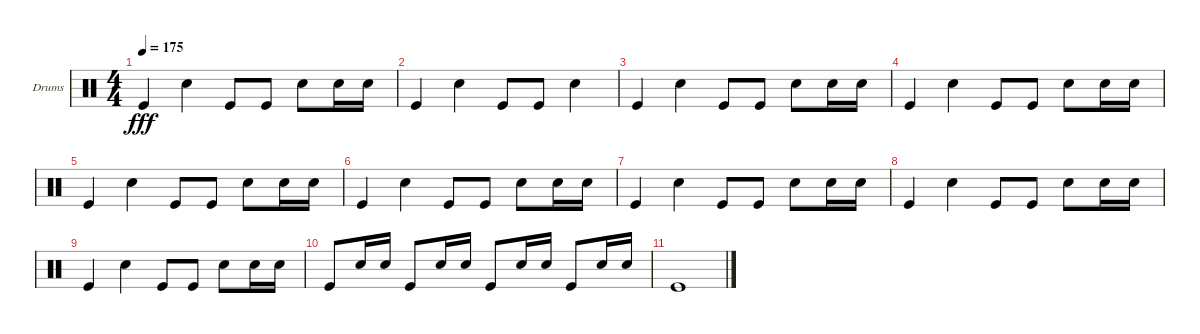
\defaultSystemsLayout 4
\bracketExtendMode groupsimilarinstruments
\firstSystemTrackNameOrientation horizontal
\otherSystemsTrackNameOrientation horizontal
\track ("Helders" "Drums") {instrument percussion}
\staff {score}
\articulation defaults
\ts (4 4)
\tempo 175
\clef neutral
\ks c "Kick (hit)".4{dy fff} "Snare (hit) 2".4 "Kick (hit)".8 "Kick (hit)".8 "Snare (hit) 2".8 "Snare (hit) 2".16 "Snare (hit) 2".16
|
"Kick (hit)".4 "Snare (hit) 2".4 "Kick (hit)".8 "Kick (hit)".8 "Snare (hit) 2".4 |
"Kick (hit)".4 "Snare (hit) 2".4 "Kick (hit)".8 "Kick (hit)".8 "Snare (hit) 2".8 "Snare (hit) 2".16 "Snare (hit) 2".16 |
"Kick (hit)".4 "Snare (hit) 2".4 "Kick (hit)".8 "Kick (hit)".8 "Snare (hit) 2".8 "Snare (hit) 2".16 "Snare (hit) 2".16 |
"Kick (hit)".4 "Snare (hit) 2".4 "Kick (hit)".8 "Kick (hit)".8 "Snare (hit) 2".8 "Snare (hit) 2".16 "Snare (hit) 2".16 |
"Kick (hit)".4 "Snare (hit) 2".4 "Kick (hit)".8 "Kick (hit)".8 "Snare (hit) 2".8 "Snare (hit) 2".16 "Snare (hit) 2".16 |
"Kick (hit)".4 "Snare (hit) 2".4 "Kick (hit)".8 "Kick (hit)".8 "Snare (hit) 2".8 "Snare (hit) 2".16 "Snare (hit) 2".16 |
"Kick (hit)".4 "Snare (hit) 2".4 "Kick (hit)".8 "Kick (hit)".8 "Snare (hit) 2".8 "Snare (hit) 2".16 "Snare (hit) 2".16 |
"Kick (hit)".4 "Snare (hit) 2".4 "Kick (hit)".8 "Kick (hit)".8 "Snare (hit) 2".8 "Snare (hit) 2".16 "Snare (hit) 2".16 |
"Kick (hit)".8 "Snare (hit) 2".16 "Snare (hit) 2".16 "Kick (hit)".8 "Snare (hit) 2".16 "Snare (hit) 2".16 "Kick (hit)".8 "Snare (hit) 2".16 "Snare (hit) 2".16 "Kick (hit)".8 "Snare (hit) 2".16 "Snare (hit) 2".16 |
"Kick (hit)".1
